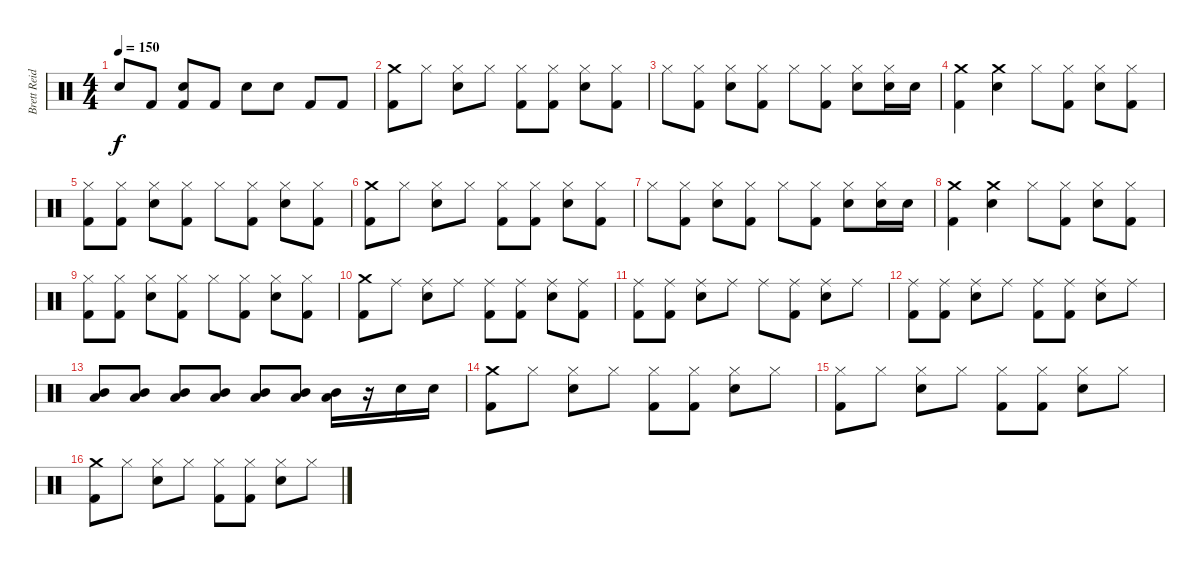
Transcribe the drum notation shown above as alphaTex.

\track ("Brett Reid" "Brett Reid") {instrument percussion}
\staff {score}
\articulation defaults
\ts (4 4)
\tempo 150
\clef neutral
\ks c "Snare (hit) 2".8{dy f} "Kick (hit) 2".8
("Snare (hit) 2" "Kick (hit) 2").8 "Kick (hit) 2".8 "Snare (hit) 2".8 "Snare (hit) 2".8 "Kick (hit) 2".8 "Kick (hit) 2".8 |
("Crash medium (hit)" "Kick (hit) 2").8 "Hi-Hat (closed)".8 ("Hi-Hat (closed)" "Snare (hit) 2").8 "Hi-Hat (closed)".8 ("Hi-Hat (closed)" "Kick (hit) 2").8 ("Hi-Hat (closed)" "Kick (hit) 2").8 ("Hi-Hat (closed)" "Snare (hit) 2").8 ("Hi-Hat (closed)" "Kick (hit) 2").8 |
"Hi-Hat (closed)".8 ("Hi-Hat (closed)" "Kick (hit) 2").8 ("Hi-Hat (closed)" "Snare (hit) 2").8 ("Hi-Hat (closed)" "Kick (hit) 2").8 "Hi-Hat (closed)".8 ("Hi-Hat (closed)" "Kick (hit) 2").8 ("Hi-Hat (closed)" "Snare (hit) 2").8 ("Hi-Hat (closed)" "Snare (hit) 2").16 "Snare (hit) 2".16 |
("Crash medium (hit)" "Kick (hit) 2").4 ("Crash medium (hit)" "Snare (hit) 2").4 "Hi-Hat (closed)".8 ("Hi-Hat (closed)" "Kick (hit) 2").8 ("Hi-Hat (closed)" "Snare (hit) 2").8 ("Hi-Hat (closed)" "Kick (hit) 2").8 |
("Hi-Hat (closed)" "Kick (hit) 2").8 ("Hi-Hat (closed)" "Kick (hit) 2").8 ("Hi-Hat (closed)" "Snare (hit) 2").8 ("Hi-Hat (closed)" "Kick (hit) 2").8 "Hi-Hat (closed)".8 ("Hi-Hat (closed)" "Kick (hit) 2").8 ("Hi-Hat (closed)" "Snare (hit) 2").8 ("Hi-Hat (closed)" "Kick (hit) 2").8 |
("Crash medium (hit)" "Kick (hit) 2").8 "Hi-Hat (closed)".8 ("Hi-Hat (closed)" "Snare (hit) 2").8 "Hi-Hat (closed)".8 ("Hi-Hat (closed)" "Kick (hit) 2").8 ("Hi-Hat (closed)" "Kick (hit) 2").8 ("Hi-Hat (closed)" "Snare (hit) 2").8 ("Hi-Hat (closed)" "Kick (hit) 2").8 |
"Hi-Hat (closed)".8 ("Hi-Hat (closed)" "Kick (hit) 2").8 ("Hi-Hat (closed)" "Snare (hit) 2").8 ("Hi-Hat (closed)" "Kick (hit) 2").8 "Hi-Hat (closed)".8 ("Hi-Hat (closed)" "Kick (hit) 2").8 ("Hi-Hat (closed)" "Snare (hit) 2").8 ("Hi-Hat (closed)" "Snare (hit) 2").16 "Snare (hit) 2".16 |
("Crash medium (hit)" "Kick (hit) 2").4 ("Crash medium (hit)" "Snare (hit) 2").4 "Hi-Hat (closed)".8 ("Hi-Hat (closed)" "Kick (hit) 2").8 ("Hi-Hat (closed)" "Snare (hit) 2").8 ("Hi-Hat (closed)" "Kick (hit) 2").8 |
("Hi-Hat (closed)" "Kick (hit) 2").8 ("Hi-Hat (closed)" "Kick (hit) 2").8 ("Hi-Hat (closed)" "Snare (hit) 2").8 ("Hi-Hat (closed)" "Kick (hit) 2").8 "Hi-Hat (closed)".8 ("Hi-Hat (closed)" "Kick (hit) 2").8 ("Hi-Hat (closed)" "Snare (hit) 2").8 ("Hi-Hat (closed)" "Kick (hit) 2").8 |
("Crash medium (hit)" "Kick (hit) 2").8 "Ride (middle)".8 ("Ride (middle)" "Snare (hit) 2").8 "Ride (middle)".8 ("Ride (middle)" "Kick (hit) 2").8 ("Ride (middle)" "Kick (hit) 2").8 ("Ride (middle)" "Snare (hit) 2").8 ("Ride (middle)" "Kick (hit) 2").8 |
("Ride (middle)" "Kick (hit) 2").8 ("Ride (middle)" "Kick (hit) 2").8 ("Ride (middle)" "Snare (hit) 2").8 "Ride (middle)".8 "Ride (middle)".8 ("Ride (middle)" "Kick (hit) 2").8 ("Ride (middle)" "Snare (hit) 2").8 "Ride (middle)".8 |
("Ride (middle)" "Kick (hit) 2").8 ("Ride (middle)" "Kick (hit) 2").8 ("Ride (middle)" "Snare (hit) 2").8 "Ride (middle)".8 ("Ride (middle)" "Kick (hit) 2").8 ("Ride (middle)" "Kick (hit) 2").8 ("Ride (middle)" "Snare (hit) 2").8 "Ride (middle)".8 |
("Mid Tom (hit)" "Low Floor Tom (hit)").8 ("Mid Tom (hit)" "Low Floor Tom (hit)").8 ("Mid Tom (hit)" "Low Floor Tom (hit)").8 ("Mid Tom (hit)" "Low Floor Tom (hit)").8 ("Mid Tom (hit)" "Low Floor Tom (hit)").8 ("Mid Tom (hit)" "Low Floor Tom (hit)").8 ("Mid Tom (hit)" "Low Floor Tom (hit)").16 r.16 "Snare (hit) 2".16 "Snare (hit) 2".16 |
("Crash medium (hit)" "Kick (hit) 2").8 "Hi-Hat (closed)".8 ("Hi-Hat (closed)" "Snare (hit) 2").8 "Hi-Hat (closed)".8 ("Hi-Hat (closed)" "Kick (hit) 2").8 ("Hi-Hat (closed)" "Kick (hit) 2").8 ("Hi-Hat (closed)" "Snare (hit) 2").8 "Hi-Hat (closed)".8 |
("Hi-Hat (closed)" "Kick (hit) 2").8 "Hi-Hat (closed)".8 ("Hi-Hat (closed)" "Snare (hit) 2").8 "Hi-Hat (closed)".8 ("Hi-Hat (closed)" "Kick (hit) 2").8 ("Hi-Hat (closed)" "Kick (hit) 2").8 ("Hi-Hat (closed)" "Snare (hit) 2").8 "Hi-Hat (closed)".8 |
("Crash medium (hit)" "Kick (hit) 2").8 "Hi-Hat (closed)".8 ("Hi-Hat (closed)" "Snare (hit) 2").8 "Hi-Hat (closed)".8 ("Hi-Hat (closed)" "Kick (hit) 2").8 ("Hi-Hat (closed)" "Kick (hit) 2").8 ("Hi-Hat (closed)" "Snare (hit) 2").8 "Hi-Hat (closed)".8
